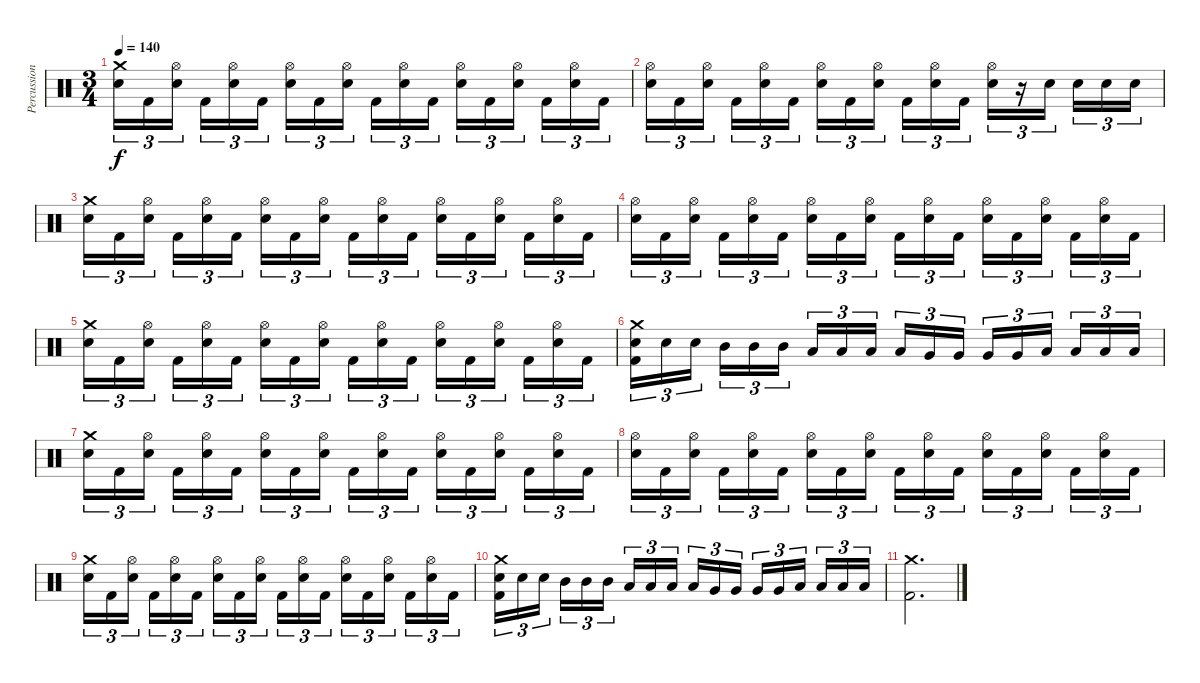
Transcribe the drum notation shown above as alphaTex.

\track ("Percussion" "Percussion") {instrument percussion}
\staff {score}
\articulation defaults
\ts (3 4)
\tempo 140
\clef neutral
\ks c
("Crash medium (hit)" "Electric Snare (hit)").16{tu (3 2) dy f} "Kick (hit) 2".16{tu (3 2)} ("Hi-Hat (open)" "Electric Snare (hit)").16{tu (3 2) beam splitsecondary} "Kick (hit) 2".16{tu (3 2)} ("Hi-Hat (open)" "Electric Snare (hit)").16{tu (3 2)} "Kick (hit) 2".16{tu (3 2)} ("Hi-Hat (open)" "Electric Snare (hit)").16{tu (3 2)} "Kick (hit) 2".16{tu (3 2)} ("Hi-Hat (open)" "Electric Snare (hit)").16{tu (3 2) beam splitsecondary} "Kick (hit) 2".16{tu (3 2)} ("Hi-Hat (open)" "Electric Snare (hit)").16{tu (3 2)} "Kick (hit) 2".16{tu (3 2)} ("Hi-Hat (open)" "Electric Snare (hit)").16{tu (3 2)} "Kick (hit) 2".16{tu (3 2)} ("Hi-Hat (open)" "Electric Snare (hit)").16{tu (3 2) beam splitsecondary} "Kick (hit) 2".16{tu (3 2)} ("Hi-Hat (open)" "Electric Snare (hit)").16{tu (3 2)} "Kick (hit) 2".16{tu (3 2)} |
("Hi-Hat (open)" "Electric Snare (hit)").16{tu (3 2)} "Kick (hit) 2".16{tu (3 2)} ("Hi-Hat (open)" "Electric Snare (hit)").16{tu (3 2) beam splitsecondary} "Kick (hit) 2".16{tu (3 2)} ("Hi-Hat (open)" "Electric Snare (hit)").16{tu (3 2)} "Kick (hit) 2".16{tu (3 2)} ("Hi-Hat (open)" "Electric Snare (hit)").16{tu (3 2)} "Kick (hit) 2".16{tu (3 2)} ("Hi-Hat (open)" "Electric Snare (hit)").16{tu (3 2) beam splitsecondary} "Kick (hit) 2".16{tu (3 2)} ("Hi-Hat (open)" "Electric Snare (hit)").16{tu (3 2)} "Kick (hit) 2".16{tu (3 2)} ("Hi-Hat (open)" "Electric Snare (hit)").16{tu (3 2)} r.16{tu (3 2)} "Electric Snare (hit)".16{tu (3 2) beam splitsecondary} "Electric Snare (hit)".16{tu (3 2)} "Electric Snare (hit)".16{tu (3 2)} "Electric Snare (hit)".16{tu (3 2)} |
("Crash medium (hit)" "Electric Snare (hit)").16{tu (3 2)} "Kick (hit) 2".16{tu (3 2)} ("Hi-Hat (open)" "Electric Snare (hit)").16{tu (3 2) beam splitsecondary} "Kick (hit) 2".16{tu (3 2)} ("Hi-Hat (open)" "Electric Snare (hit)").16{tu (3 2)} "Kick (hit) 2".16{tu (3 2)} ("Hi-Hat (open)" "Electric Snare (hit)").16{tu (3 2)} "Kick (hit) 2".16{tu (3 2)} ("Hi-Hat (open)" "Electric Snare (hit)").16{tu (3 2) beam splitsecondary} "Kick (hit) 2".16{tu (3 2)} ("Hi-Hat (open)" "Electric Snare (hit)").16{tu (3 2)} "Kick (hit) 2".16{tu (3 2)} ("Hi-Hat (open)" "Electric Snare (hit)").16{tu (3 2)} "Kick (hit) 2".16{tu (3 2)} ("Hi-Hat (open)" "Electric Snare (hit)").16{tu (3 2) beam splitsecondary} "Kick (hit) 2".16{tu (3 2)} ("Hi-Hat (open)" "Electric Snare (hit)").16{tu (3 2)} "Kick (hit) 2".16{tu (3 2)} |
("Hi-Hat (open)" "Electric Snare (hit)").16{tu (3 2)} "Kick (hit) 2".16{tu (3 2)} ("Hi-Hat (open)" "Electric Snare (hit)").16{tu (3 2) beam splitsecondary} "Kick (hit) 2".16{tu (3 2)} ("Hi-Hat (open)" "Electric Snare (hit)").16{tu (3 2)} "Kick (hit) 2".16{tu (3 2)} ("Hi-Hat (open)" "Electric Snare (hit)").16{tu (3 2)} "Kick (hit) 2".16{tu (3 2)} ("Hi-Hat (open)" "Electric Snare (hit)").16{tu (3 2) beam splitsecondary} "Kick (hit) 2".16{tu (3 2)} ("Hi-Hat (open)" "Electric Snare (hit)").16{tu (3 2)} "Kick (hit) 2".16{tu (3 2)} ("Hi-Hat (open)" "Electric Snare (hit)").16{tu (3 2)} "Kick (hit) 2".16{tu (3 2)} ("Hi-Hat (open)" "Electric Snare (hit)").16{tu (3 2) beam splitsecondary} "Kick (hit) 2".16{tu (3 2)} ("Hi-Hat (open)" "Electric Snare (hit)").16{tu (3 2)} "Kick (hit) 2".16{tu (3 2)} |
("Crash medium (hit)" "Electric Snare (hit)").16{tu (3 2)} "Kick (hit) 2".16{tu (3 2)} ("Hi-Hat (open)" "Electric Snare (hit)").16{tu (3 2) beam splitsecondary} "Kick (hit) 2".16{tu (3 2)} ("Hi-Hat (open)" "Electric Snare (hit)").16{tu (3 2)} "Kick (hit) 2".16{tu (3 2)} ("Hi-Hat (open)" "Electric Snare (hit)").16{tu (3 2)} "Kick (hit) 2".16{tu (3 2)} ("Hi-Hat (open)" "Electric Snare (hit)").16{tu (3 2) beam splitsecondary} "Kick (hit) 2".16{tu (3 2)} ("Hi-Hat (open)" "Electric Snare (hit)").16{tu (3 2)} "Kick (hit) 2".16{tu (3 2)} ("Hi-Hat (open)" "Electric Snare (hit)").16{tu (3 2)} "Kick (hit) 2".16{tu (3 2)} ("Hi-Hat (open)" "Electric Snare (hit)").16{tu (3 2) beam splitsecondary} "Kick (hit) 2".16{tu (3 2)} ("Hi-Hat (open)" "Electric Snare (hit)").16{tu (3 2)} "Kick (hit) 2".16{tu (3 2)} |
("Crash medium (hit)" "Electric Snare (hit)" "Kick (hit) 2").16{tu (3 2)} "Electric Snare (hit)".16{tu (3 2)} "Electric Snare (hit)".16{tu (3 2) beam splitsecondary} "Mid Tom (hit)".16{tu (3 2)} "Mid Tom (hit)".16{tu (3 2)} "Mid Tom (hit)".16{tu (3 2)} "Low Tom (hit)".16{tu (3 2)} "Low Tom (hit)".16{tu (3 2)} "Low Tom (hit)".16{tu (3 2) beam splitsecondary} "Low Tom (hit)".16{tu (3 2)} "Very Low Tom (hit)".16{tu (3 2)} "Very Low Tom (hit)".16{tu (3 2)} "Very Low Tom (hit)".16{tu (3 2)} "Very Low Tom (hit)".16{tu (3 2)} "Low Floor Tom (hit)".16{tu (3 2) beam splitsecondary} "Low Floor Tom (hit)".16{tu (3 2)} "Low Floor Tom (hit)".16{tu (3 2)} "Low Floor Tom (hit)".16{tu (3 2)} |
("Crash medium (hit)" "Electric Snare (hit)").16{tu (3 2)} "Kick (hit) 2".16{tu (3 2)} ("Hi-Hat (open)" "Electric Snare (hit)").16{tu (3 2) beam splitsecondary} "Kick (hit) 2".16{tu (3 2)} ("Hi-Hat (open)" "Electric Snare (hit)").16{tu (3 2)} "Kick (hit) 2".16{tu (3 2)} ("Hi-Hat (open)" "Electric Snare (hit)").16{tu (3 2)} "Kick (hit) 2".16{tu (3 2)} ("Hi-Hat (open)" "Electric Snare (hit)").16{tu (3 2) beam splitsecondary} "Kick (hit) 2".16{tu (3 2)} ("Hi-Hat (open)" "Electric Snare (hit)").16{tu (3 2)} "Kick (hit) 2".16{tu (3 2)} ("Hi-Hat (open)" "Electric Snare (hit)").16{tu (3 2)} "Kick (hit) 2".16{tu (3 2)} ("Hi-Hat (open)" "Electric Snare (hit)").16{tu (3 2) beam splitsecondary} "Kick (hit) 2".16{tu (3 2)} ("Hi-Hat (open)" "Electric Snare (hit)").16{tu (3 2)} "Kick (hit) 2".16{tu (3 2)} |
("Hi-Hat (open)" "Electric Snare (hit)").16{tu (3 2)} "Kick (hit) 2".16{tu (3 2)} ("Hi-Hat (open)" "Electric Snare (hit)").16{tu (3 2) beam splitsecondary} "Kick (hit) 2".16{tu (3 2)} ("Hi-Hat (open)" "Electric Snare (hit)").16{tu (3 2)} "Kick (hit) 2".16{tu (3 2)} ("Hi-Hat (open)" "Electric Snare (hit)").16{tu (3 2)} "Kick (hit) 2".16{tu (3 2)} ("Hi-Hat (open)" "Electric Snare (hit)").16{tu (3 2) beam splitsecondary} "Kick (hit) 2".16{tu (3 2)} ("Hi-Hat (open)" "Electric Snare (hit)").16{tu (3 2)} "Kick (hit) 2".16{tu (3 2)} ("Hi-Hat (open)" "Electric Snare (hit)").16{tu (3 2)} "Kick (hit) 2".16{tu (3 2)} ("Hi-Hat (open)" "Electric Snare (hit)").16{tu (3 2) beam splitsecondary} "Kick (hit) 2".16{tu (3 2)} ("Hi-Hat (open)" "Electric Snare (hit)").16{tu (3 2)} "Kick (hit) 2".16{tu (3 2)} |
("Crash medium (hit)" "Electric Snare (hit)").16{tu (3 2)} "Kick (hit) 2".16{tu (3 2)} ("Hi-Hat (open)" "Electric Snare (hit)").16{tu (3 2) beam splitsecondary} "Kick (hit) 2".16{tu (3 2)} ("Hi-Hat (open)" "Electric Snare (hit)").16{tu (3 2)} "Kick (hit) 2".16{tu (3 2)} ("Hi-Hat (open)" "Electric Snare (hit)").16{tu (3 2)} "Kick (hit) 2".16{tu (3 2)} ("Hi-Hat (open)" "Electric Snare (hit)").16{tu (3 2) beam splitsecondary} "Kick (hit) 2".16{tu (3 2)} ("Hi-Hat (open)" "Electric Snare (hit)").16{tu (3 2)} "Kick (hit) 2".16{tu (3 2)} ("Hi-Hat (open)" "Electric Snare (hit)").16{tu (3 2)} "Kick (hit) 2".16{tu (3 2)} ("Hi-Hat (open)" "Electric Snare (hit)").16{tu (3 2) beam splitsecondary} "Kick (hit) 2".16{tu (3 2)} ("Hi-Hat (open)" "Electric Snare (hit)").16{tu (3 2)} "Kick (hit) 2".16{tu (3 2)} |
("Crash medium (hit)" "Electric Snare (hit)" "Kick (hit) 2").16{tu (3 2)} "Electric Snare (hit)".16{tu (3 2)} "Electric Snare (hit)".16{tu (3 2) beam splitsecondary} "Mid Tom (hit)".16{tu (3 2)} "Mid Tom (hit)".16{tu (3 2)} "Mid Tom (hit)".16{tu (3 2)} "Low Tom (hit)".16{tu (3 2)} "Low Tom (hit)".16{tu (3 2)} "Low Tom (hit)".16{tu (3 2) beam splitsecondary} "Low Tom (hit)".16{tu (3 2)} "Very Low Tom (hit)".16{tu (3 2)} "Very Low Tom (hit)".16{tu (3 2)} "Very Low Tom (hit)".16{tu (3 2)} "Very Low Tom (hit)".16{tu (3 2)} "Low Floor Tom (hit)".16{tu (3 2) beam splitsecondary} "Low Floor Tom (hit)".16{tu (3 2)} "Low Floor Tom (hit)".16{tu (3 2)} "Low Floor Tom (hit)".16{tu (3 2)} |
("Crash medium (hit)" "Kick (hit) 2").2{d}
